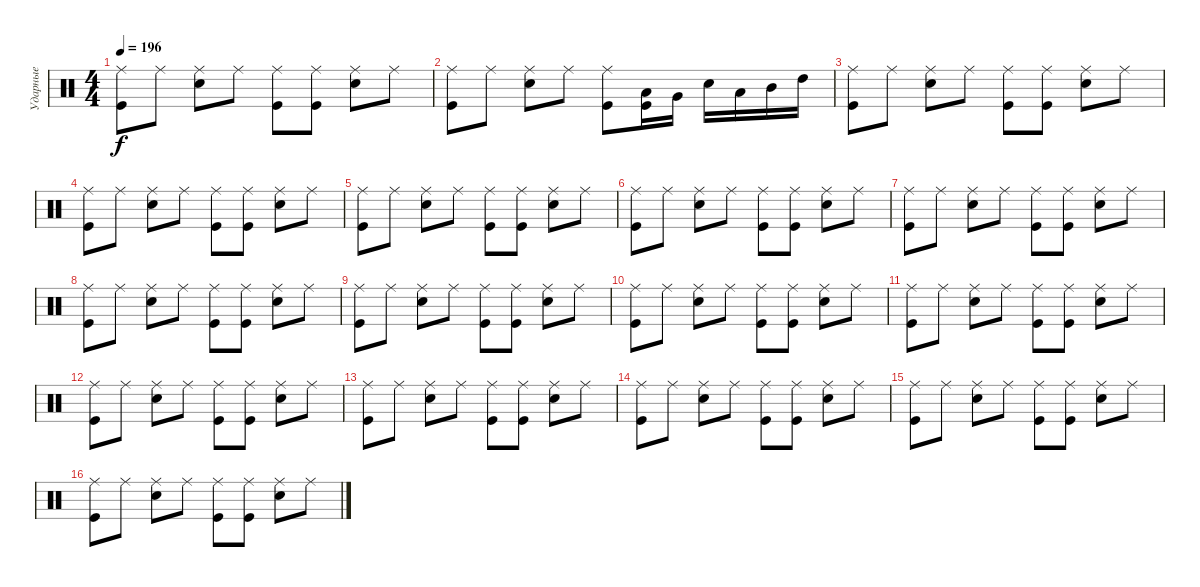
\track ("Ударные" "Ударные") {instrument percussion}
\staff {score}
\articulation defaults
\ts (4 4)
\tempo 196
\clef neutral
\ks c
("Ride (middle)" "Kick (hit)").8{dy f} "Ride (middle)".8 ("Ride (middle)" "Electric Snare (hit)").8 "Ride (middle)".8 ("Ride (middle)" "Kick (hit)").8 ("Ride (middle)" "Kick (hit)").8 ("Ride (middle)" "Electric Snare (hit)").8 "Ride (middle)".8 |
("Ride (middle)" "Kick (hit)").8 "Ride (middle)".8 ("Ride (middle)" "Electric Snare (hit)").8 "Ride (middle)".8 ("Ride (middle)" "Kick (hit)").8 ("Low Floor Tom (hit)" "Kick (hit)").16 "Very Low Tom (hit)".16 "Electric Snare (hit)".16 "Low Tom (hit)".16 "Mid Tom (hit)".16 "High Tom (hit)".16 |
("Ride (middle)" "Kick (hit)").8 "Ride (middle)".8 ("Ride (middle)" "Electric Snare (hit)").8 "Ride (middle)".8 ("Ride (middle)" "Kick (hit)").8 ("Ride (middle)" "Kick (hit)").8 ("Ride (middle)" "Electric Snare (hit)").8 "Ride (middle)".8 |
("Ride (middle)" "Kick (hit)").8 "Ride (middle)".8 ("Ride (middle)" "Electric Snare (hit)").8 "Ride (middle)".8 ("Ride (middle)" "Kick (hit)").8 ("Ride (middle)" "Kick (hit)").8 ("Ride (middle)" "Electric Snare (hit)").8 "Ride (middle)".8 |
("Ride (middle)" "Kick (hit)").8 "Ride (middle)".8 ("Ride (middle)" "Electric Snare (hit)").8 "Ride (middle)".8 ("Ride (middle)" "Kick (hit)").8 ("Ride (middle)" "Kick (hit)").8 ("Ride (middle)" "Electric Snare (hit)").8 "Ride (middle)".8 |
("Ride (middle)" "Kick (hit)").8 "Ride (middle)".8 ("Ride (middle)" "Electric Snare (hit)").8 "Ride (middle)".8 ("Ride (middle)" "Kick (hit)").8 ("Ride (middle)" "Kick (hit)").8 ("Ride (middle)" "Electric Snare (hit)").8 "Ride (middle)".8 |
("Ride (middle)" "Kick (hit)").8 "Ride (middle)".8 ("Ride (middle)" "Electric Snare (hit)").8 "Ride (middle)".8 ("Ride (middle)" "Kick (hit)").8 ("Ride (middle)" "Kick (hit)").8 ("Ride (middle)" "Electric Snare (hit)").8 "Ride (middle)".8 |
("Ride (middle)" "Kick (hit)").8 "Ride (middle)".8 ("Ride (middle)" "Electric Snare (hit)").8 "Ride (middle)".8 ("Ride (middle)" "Kick (hit)").8 ("Ride (middle)" "Kick (hit)").8 ("Ride (middle)" "Electric Snare (hit)").8 "Ride (middle)".8 |
("Ride (middle)" "Kick (hit)").8 "Ride (middle)".8 ("Ride (middle)" "Electric Snare (hit)").8 "Ride (middle)".8 ("Ride (middle)" "Kick (hit)").8 ("Ride (middle)" "Kick (hit)").8 ("Ride (middle)" "Electric Snare (hit)").8 "Ride (middle)".8 |
("Ride (middle)" "Kick (hit)").8 "Ride (middle)".8 ("Ride (middle)" "Electric Snare (hit)").8 "Ride (middle)".8 ("Ride (middle)" "Kick (hit)").8 ("Ride (middle)" "Kick (hit)").8 ("Ride (middle)" "Electric Snare (hit)").8 "Ride (middle)".8 |
("Ride (middle)" "Kick (hit)").8 "Ride (middle)".8 ("Ride (middle)" "Electric Snare (hit)").8 "Ride (middle)".8 ("Ride (middle)" "Kick (hit)").8 ("Ride (middle)" "Kick (hit)").8 ("Ride (middle)" "Electric Snare (hit)").8 "Ride (middle)".8 |
("Ride (middle)" "Kick (hit)").8 "Ride (middle)".8 ("Ride (middle)" "Electric Snare (hit)").8 "Ride (middle)".8 ("Ride (middle)" "Kick (hit)").8 ("Ride (middle)" "Kick (hit)").8 ("Ride (middle)" "Electric Snare (hit)").8 "Ride (middle)".8 |
("Ride (middle)" "Kick (hit)").8 "Ride (middle)".8 ("Ride (middle)" "Electric Snare (hit)").8 "Ride (middle)".8 ("Ride (middle)" "Kick (hit)").8 ("Ride (middle)" "Kick (hit)").8 ("Ride (middle)" "Electric Snare (hit)").8 "Ride (middle)".8 |
("Ride (middle)" "Kick (hit)").8 "Ride (middle)".8 ("Ride (middle)" "Electric Snare (hit)").8 "Ride (middle)".8 ("Ride (middle)" "Kick (hit)").8 ("Ride (middle)" "Kick (hit)").8 ("Ride (middle)" "Electric Snare (hit)").8 "Ride (middle)".8 |
("Ride (middle)" "Kick (hit)").8 "Ride (middle)".8 ("Ride (middle)" "Electric Snare (hit)").8 "Ride (middle)".8 ("Ride (middle)" "Kick (hit)").8 ("Ride (middle)" "Kick (hit)").8 ("Ride (middle)" "Electric Snare (hit)").8 "Ride (middle)".8 |
("Ride (middle)" "Kick (hit)").8 "Ride (middle)".8 ("Ride (middle)" "Electric Snare (hit)").8 "Ride (middle)".8 ("Ride (middle)" "Kick (hit)").8 ("Ride (middle)" "Kick (hit)").8 ("Ride (middle)" "Electric Snare (hit)").8 "Ride (middle)".8
